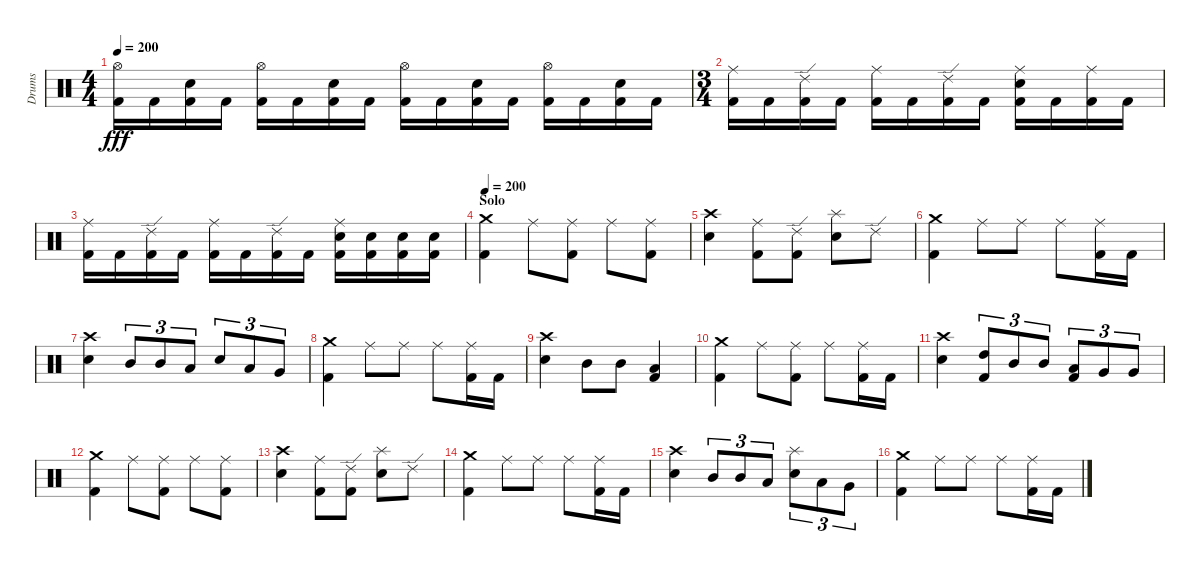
\track ("Drums" "Drums") {instrument percussion}
\staff {score}
\articulation defaults
\ts (4 4)
\tempo 200
\clef neutral
\ks c
("Kick (hit) 2" "Hi-Hat (open)").16{dy fff} "Kick (hit) 2".16 ("Kick (hit) 2" "Electric Snare (hit)").16 "Kick (hit) 2".16 ("Kick (hit) 2" "Hi-Hat (open)").16 "Kick (hit) 2".16 ("Kick (hit) 2" "Electric Snare (hit)").16 "Kick (hit) 2".16 ("Kick (hit) 2" "Hi-Hat (open)").16 "Kick (hit) 2".16 ("Kick (hit) 2" "Electric Snare (hit)").16 "Kick (hit) 2".16 ("Kick (hit) 2" "Hi-Hat (open)").16 "Kick (hit) 2".16 ("Kick (hit) 2" "Electric Snare (hit)").16 "Kick (hit) 2".16 |
\ts (3 4)
("Kick (hit) 2" "Ride (middle)").16 "Kick (hit) 2".16 ("Kick (hit) 2" "Ride (edge) 2").16 "Kick (hit) 2".16 ("Kick (hit) 2" "Ride (middle)").16 "Kick (hit) 2".16 ("Kick (hit) 2" "Ride (edge) 2").16 "Kick (hit) 2".16 ("Kick (hit) 2" "Electric Snare (hit)" "Ride (middle)").16 "Kick (hit) 2".16 ("Kick (hit) 2" "Ride (middle)").16 "Kick (hit) 2".16 |
("Kick (hit) 2" "Ride (middle)").16 "Kick (hit) 2".16 ("Kick (hit) 2" "Ride (edge) 2").16 "Kick (hit) 2".16 ("Kick (hit) 2" "Ride (middle)").16 "Kick (hit) 2".16 ("Kick (hit) 2" "Ride (edge) 2").16 "Kick (hit) 2".16 ("Kick (hit) 2" "Electric Snare (hit)" "Ride (middle)").16 ("Kick (hit) 2" "Electric Snare (hit)").16 ("Kick (hit) 2" "Electric Snare (hit)").16 ("Kick (hit) 2" "Electric Snare (hit)").16 |
\section ("" "Solo")
\tempo 200
("Kick (hit) 2" "Crash medium (hit)").4 "Ride (middle)".8 ("Kick (hit) 2" "Ride (middle)").8 "Ride (middle)".8 ("Kick (hit) 2" "Ride (middle)").8 |
("Electric Snare (hit)" "Crash high (hit)").4 ("Kick (hit) 2" "Ride (middle)").8 ("Kick (hit) 2" "Ride (edge) 2").8 ("Electric Snare (hit)" "Splash (hit)").8 "Ride (edge) 2".8 |
("Kick (hit) 2" "Crash medium (hit)").4 "Ride (middle)".8 "Ride (middle)".8 "Ride (middle)".8 ("Kick (hit) 2" "Ride (middle)").16 "Kick (hit) 2".16 |
("Electric Snare (hit)" "Crash high (hit)").4 "Mid Tom (hit)".8{tu (3 2)} "Mid Tom (hit)".8{tu (3 2)} "Low Tom (hit)".8{tu (3 2)} "Electric Snare (hit)".8{tu (3 2)} "Low Tom (hit)".8{tu (3 2)} "Very Low Tom (hit)".8{tu (3 2)} |
("Kick (hit) 2" "Crash medium (hit)").4 "Ride (middle)".8 "Ride (middle)".8 "Ride (middle)".8 ("Kick (hit) 2" "Ride (middle)").16 "Kick (hit) 2".16 |
("Electric Snare (hit)" "Crash high (hit)").4 "Mid Tom (hit)".8 "Mid Tom (hit)".8 ("Kick (hit) 2" "Low Tom (hit)").4 |
("Kick (hit) 2" "Crash medium (hit)").4 "Ride (middle)".8 ("Kick (hit) 2" "Ride (middle)").8 "Ride (middle)".8 ("Kick (hit) 2" "Ride (middle)").16 "Kick (hit) 2".16 |
("Electric Snare (hit)" "Crash high (hit)").4 ("Kick (hit) 2" "High Tom (hit)").8{tu (3 2)} "Mid Tom (hit)".8{tu (3 2)} "Mid Tom (hit)".8{tu (3 2)} ("Kick (hit) 2" "Low Tom (hit)").8{tu (3 2)} "Very Low Tom (hit)".8{tu (3 2)} "Very Low Tom (hit)".8{tu (3 2)} |
("Kick (hit) 2" "Crash medium (hit)").4 "Ride (middle)".8 ("Kick (hit) 2" "Ride (middle)").8 "Ride (middle)".8 ("Kick (hit) 2" "Ride (middle)").8 |
("Electric Snare (hit)" "Crash high (hit)").4 ("Kick (hit) 2" "Ride (middle)").8 ("Kick (hit) 2" "Ride (edge) 2").8 ("Electric Snare (hit)" "Splash (hit)").8 "Ride (edge) 2".8 |
("Kick (hit) 2" "Crash medium (hit)").4 "Ride (middle)".8 "Ride (middle)".8 "Ride (middle)".8 ("Kick (hit) 2" "Ride (middle)").16 "Kick (hit) 2".16 |
("Electric Snare (hit)" "Crash high (hit)").4 "Mid Tom (hit)".8{tu (3 2)} "Mid Tom (hit)".8{tu (3 2)} "Low Tom (hit)".8{tu (3 2)} ("Electric Snare (hit)" "Splash (hit)").8{tu (3 2)} "Low Tom (hit)".8{tu (3 2)} "Very Low Tom (hit)".8{tu (3 2)} |
("Kick (hit) 2" "Crash medium (hit)").4 "Ride (middle)".8 "Ride (middle)".8 "Ride (middle)".8 ("Kick (hit) 2" "Ride (middle)").16 "Kick (hit) 2".16
